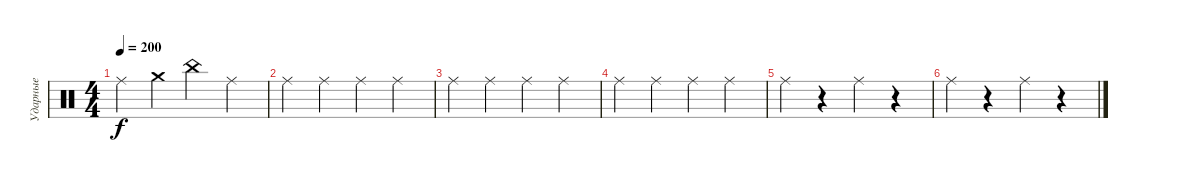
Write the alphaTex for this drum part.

\track ("Ударные" "Ударные") {instrument percussion}
\staff {score}
\articulation defaults
\ts (4 4)
\tempo 200
\clef neutral
\ks c "Ride (middle)".4{dy f} "Crash medium (hit)".4 "China (hit)".4 "Ride (middle)".4
|
"Ride (middle)".4 "Ride (middle)".4 "Ride (middle)".4 "Ride (middle)".4 |
"Ride (middle)".4 "Ride (middle)".4 "Ride (middle)".4 "Ride (middle)".4 |
"Ride (middle)".4 "Ride (middle)".4 "Ride (middle)".4 "Ride (middle)".4 |
"Ride (middle)".4 r.4 "Ride (middle)".4 r.4 |
"Ride (middle)".4 r.4 "Ride (middle)".4 r.4
